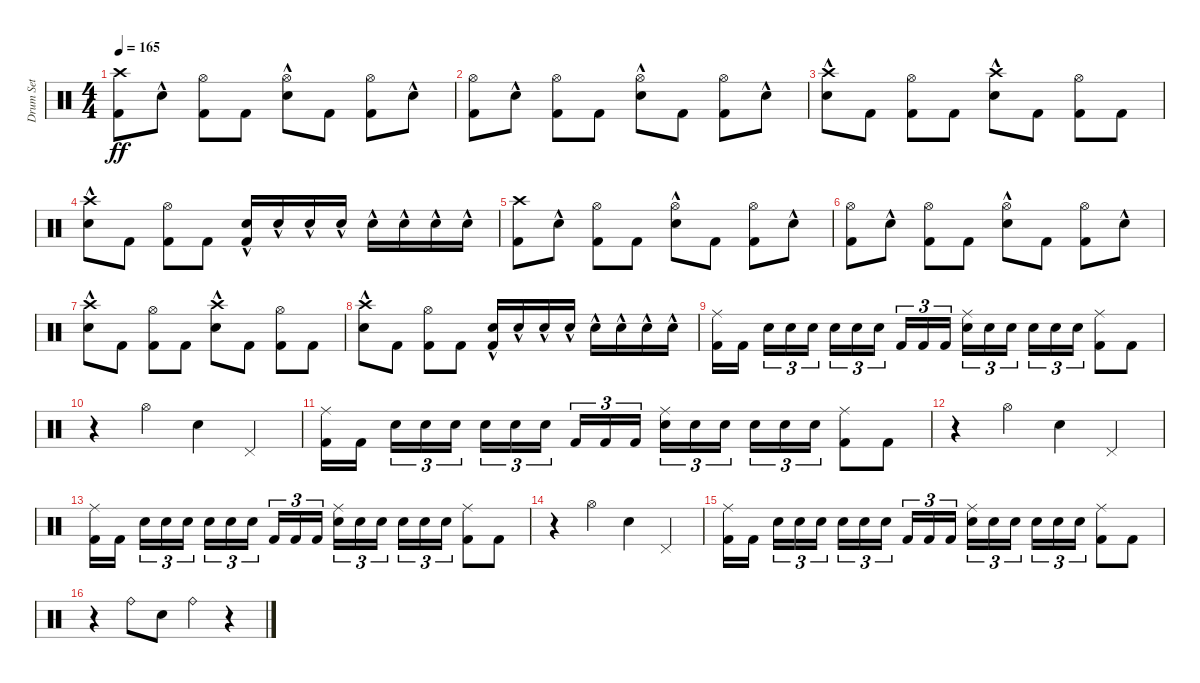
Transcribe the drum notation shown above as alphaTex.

\track ("Drum Set" "Drum Set") {instrument percussion}
\staff {score}
\articulation defaults
\ts (4 4)
\tempo 165
\clef neutral
\ks c
("Crash high (hit)" "Kick (hit) 2").8{dy ff} "Snare (hit) 2"{hac}.8 ("Hi-Hat (open)" "Kick (hit) 2").8 "Kick (hit) 2".8 ("Hi-Hat (open)" "Snare (hit) 2"{hac}).8 "Kick (hit) 2".8 ("Hi-Hat (open)" "Kick (hit) 2").8 "Snare (hit) 2"{hac}.8 |
("Hi-Hat (open)" "Kick (hit) 2").8 "Snare (hit) 2"{hac}.8 ("Hi-Hat (open)" "Kick (hit) 2").8 "Kick (hit) 2".8 ("Hi-Hat (open)" "Snare (hit) 2"{hac}).8 "Kick (hit) 2".8 ("Hi-Hat (open)" "Kick (hit) 2").8 "Snare (hit) 2"{hac}.8 |
("Crash high (hit)" "Snare (hit) 2"{hac}).8 "Kick (hit) 2".8 ("Hi-Hat (open)" "Kick (hit) 2").8 "Kick (hit) 2".8 ("Crash high (hit)" "Snare (hit) 2"{hac}).8 "Kick (hit) 2".8 ("Hi-Hat (open)" "Kick (hit) 2").8 "Kick (hit) 2".8 |
("Crash high (hit)" "Snare (hit) 2"{hac}).8 "Kick (hit) 2".8 ("Hi-Hat (open)" "Kick (hit) 2").8 "Kick (hit) 2".8 ("Snare (hit) 2"{hac} "Kick (hit) 2").16 "Snare (hit) 2"{hac}.16 "Snare (hit) 2"{hac}.16 "Snare (hit) 2"{hac}.16 "Snare (hit) 2"{hac}.16 "Snare (hit) 2"{hac}.16 "Snare (hit) 2"{hac}.16 "Snare (hit) 2"{hac}.16 |
("Crash high (hit)" "Kick (hit) 2").8 "Snare (hit) 2"{hac}.8 ("Hi-Hat (open)" "Kick (hit) 2").8 "Kick (hit) 2".8 ("Hi-Hat (open)" "Snare (hit) 2"{hac}).8 "Kick (hit) 2".8 ("Hi-Hat (open)" "Kick (hit) 2").8 "Snare (hit) 2"{hac}.8 |
("Hi-Hat (open)" "Kick (hit) 2").8 "Snare (hit) 2"{hac}.8 ("Hi-Hat (open)" "Kick (hit) 2").8 "Kick (hit) 2".8 ("Hi-Hat (open)" "Snare (hit) 2"{hac}).8 "Kick (hit) 2".8 ("Hi-Hat (open)" "Kick (hit) 2").8 "Snare (hit) 2"{hac}.8 |
("Crash high (hit)" "Snare (hit) 2"{hac}).8 "Kick (hit) 2".8 ("Hi-Hat (open)" "Kick (hit) 2").8 "Kick (hit) 2".8 ("Crash high (hit)" "Snare (hit) 2"{hac}).8 "Kick (hit) 2".8 ("Hi-Hat (open)" "Kick (hit) 2").8 "Kick (hit) 2".8 |
("Crash high (hit)" "Snare (hit) 2"{hac}).8 "Kick (hit) 2".8 ("Hi-Hat (open)" "Kick (hit) 2").8 "Kick (hit) 2".8 ("Snare (hit) 2"{hac} "Kick (hit) 2").16 "Snare (hit) 2"{hac}.16 "Snare (hit) 2"{hac}.16 "Snare (hit) 2"{hac}.16 "Snare (hit) 2"{hac}.16 "Snare (hit) 2"{hac}.16 "Snare (hit) 2"{hac}.16 "Snare (hit) 2"{hac}.16 |
("Ride (middle)" "Kick (hit) 2").16 "Kick (hit) 2".16{beam splitsecondary} "Snare (hit) 2".16{tu (3 2)} "Snare (hit) 2".16{tu (3 2)} "Snare (hit) 2".16{tu (3 2)} "Snare (hit) 2".16{tu (3 2)} "Snare (hit) 2".16{tu (3 2)} "Snare (hit) 2".16{tu (3 2) beam splitsecondary} "Kick (hit) 2".16{tu (3 2)} "Kick (hit) 2".16{tu (3 2)} "Kick (hit) 2".16{tu (3 2)} ("Ride (middle)" "Snare (hit) 2").16{tu (3 2)} "Snare (hit) 2".16{tu (3 2)} "Snare (hit) 2".16{tu (3 2) beam splitsecondary} "Snare (hit) 2".16{tu (3 2)} "Snare (hit) 2".16{tu (3 2)} "Snare (hit) 2".16{tu (3 2)} ("Ride (middle)" "Kick (hit) 2").8 "Kick (hit) 2".8 |
r.4 "Hi-Hat (open)".4 "Snare (hit) 2".4 "Pedal Hi-Hat (hit)".4 |
("Ride (middle)" "Kick (hit) 2").16 "Kick (hit) 2".16{beam splitsecondary} "Snare (hit) 2".16{tu (3 2)} "Snare (hit) 2".16{tu (3 2)} "Snare (hit) 2".16{tu (3 2)} "Snare (hit) 2".16{tu (3 2)} "Snare (hit) 2".16{tu (3 2)} "Snare (hit) 2".16{tu (3 2) beam splitsecondary} "Kick (hit) 2".16{tu (3 2)} "Kick (hit) 2".16{tu (3 2)} "Kick (hit) 2".16{tu (3 2)} ("Ride (middle)" "Snare (hit) 2").16{tu (3 2)} "Snare (hit) 2".16{tu (3 2)} "Snare (hit) 2".16{tu (3 2) beam splitsecondary} "Snare (hit) 2".16{tu (3 2)} "Snare (hit) 2".16{tu (3 2)} "Snare (hit) 2".16{tu (3 2)} ("Ride (middle)" "Kick (hit) 2").8 "Kick (hit) 2".8 |
r.4 "Hi-Hat (open)".4 "Snare (hit) 2".4 "Pedal Hi-Hat (hit)".4 |
("Ride (middle)" "Kick (hit) 2").16 "Kick (hit) 2".16{beam splitsecondary} "Snare (hit) 2".16{tu (3 2)} "Snare (hit) 2".16{tu (3 2)} "Snare (hit) 2".16{tu (3 2)} "Snare (hit) 2".16{tu (3 2)} "Snare (hit) 2".16{tu (3 2)} "Snare (hit) 2".16{tu (3 2) beam splitsecondary} "Kick (hit) 2".16{tu (3 2)} "Kick (hit) 2".16{tu (3 2)} "Kick (hit) 2".16{tu (3 2)} ("Ride (middle)" "Snare (hit) 2").16{tu (3 2)} "Snare (hit) 2".16{tu (3 2)} "Snare (hit) 2".16{tu (3 2) beam splitsecondary} "Snare (hit) 2".16{tu (3 2)} "Snare (hit) 2".16{tu (3 2)} "Snare (hit) 2".16{tu (3 2)} ("Ride (middle)" "Kick (hit) 2").8 "Kick (hit) 2".8 |
r.4 "Hi-Hat (open)".4 "Snare (hit) 2".4 "Pedal Hi-Hat (hit)".4 |
("Ride (middle)" "Kick (hit) 2").16 "Kick (hit) 2".16{beam splitsecondary} "Snare (hit) 2".16{tu (3 2)} "Snare (hit) 2".16{tu (3 2)} "Snare (hit) 2".16{tu (3 2)} "Snare (hit) 2".16{tu (3 2)} "Snare (hit) 2".16{tu (3 2)} "Snare (hit) 2".16{tu (3 2) beam splitsecondary} "Kick (hit) 2".16{tu (3 2)} "Kick (hit) 2".16{tu (3 2)} "Kick (hit) 2".16{tu (3 2)} ("Ride (middle)" "Snare (hit) 2").16{tu (3 2)} "Snare (hit) 2".16{tu (3 2)} "Snare (hit) 2".16{tu (3 2) beam splitsecondary} "Snare (hit) 2".16{tu (3 2)} "Snare (hit) 2".16{tu (3 2)} "Snare (hit) 2".16{tu (3 2)} ("Ride (middle)" "Kick (hit) 2").8 "Kick (hit) 2".8 |
r.4 "Ride (bell)".8 "Snare (hit) 2".8 "Ride (bell)".4 r.4
